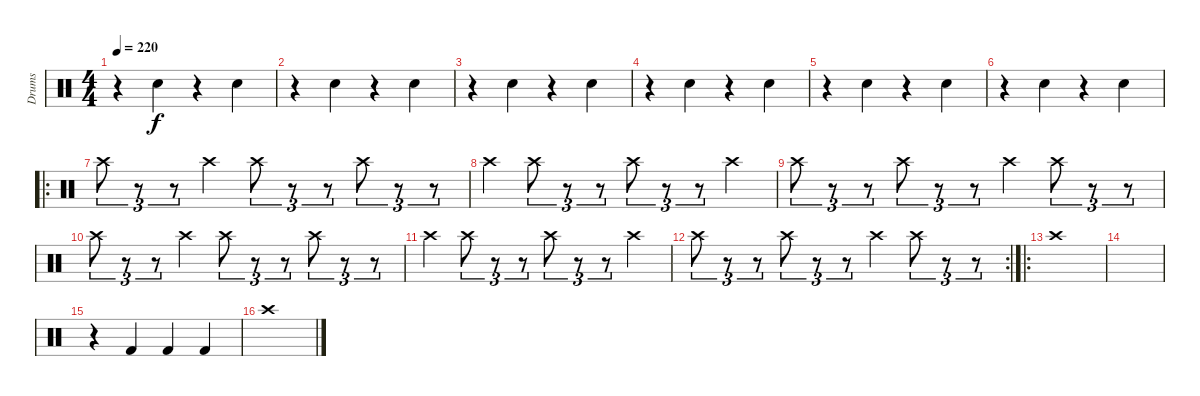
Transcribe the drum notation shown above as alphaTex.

\track ("Drums" "Drums") {instrument percussion}
\staff {score}
\articulation defaults
\ts (4 4)
\tempo 220
\clef neutral
\ks c
r.4{dy f} "Snare (hit) 2".4 r.4 "Snare (hit) 2".4 |
r.4 "Snare (hit) 2".4 r.4 "Snare (hit) 2".4 |
r.4 "Snare (hit) 2".4 r.4 "Snare (hit) 2".4 |
r.4 "Snare (hit) 2".4 r.4 "Snare (hit) 2".4 |
r.4 "Snare (hit) 2".4 r.4 "Snare (hit) 2".4 |
r.4 "Snare (hit) 2".4 r.4 "Snare (hit) 2".4 |
\ro "Crash high (hit)".8{tu (3 2)}
r.8{tu (3 2)} r.8{tu (3 2)} "Crash high (hit)".4 "Crash high (hit)".8{tu (3 2)} r.8{tu (3 2)} r.8{tu (3 2)} "Crash high (hit)".8{tu (3 2)} r.8{tu (3 2)} r.8{tu (3 2)} |
"Crash high (hit)".4 "Crash high (hit)".8{tu (3 2)} r.8{tu (3 2)} r.8{tu (3 2)} "Crash high (hit)".8{tu (3 2)} r.8{tu (3 2)} r.8{tu (3 2)} "Crash high (hit)".4 |
"Crash high (hit)".8{tu (3 2)} r.8{tu (3 2)} r.8{tu (3 2)} "Crash high (hit)".8{tu (3 2)} r.8{tu (3 2)} r.8{tu (3 2)} "Crash high (hit)".4 "Crash high (hit)".8{tu (3 2)} r.8{tu (3 2)} r.8{tu (3 2)} |
"Crash high (hit)".8{tu (3 2)} r.8{tu (3 2)} r.8{tu (3 2)} "Crash high (hit)".4 "Crash high (hit)".8{tu (3 2)} r.8{tu (3 2)} r.8{tu (3 2)} "Crash high (hit)".8{tu (3 2)} r.8{tu (3 2)} r.8{tu (3 2)} |
"Crash high (hit)".4 "Crash high (hit)".8{tu (3 2)} r.8{tu (3 2)} r.8{tu (3 2)} "Crash high (hit)".8{tu (3 2)} r.8{tu (3 2)} r.8{tu (3 2)} "Crash high (hit)".4 |
\rc 2 "Crash high (hit)".8{tu (3 2)}
r.8{tu (3 2)} r.8{tu (3 2)} "Crash high (hit)".8{tu (3 2)} r.8{tu (3 2)} r.8{tu (3 2)} "Crash high (hit)".4 "Crash high (hit)".8{tu (3 2)} r.8{tu (3 2)} r.8{tu (3 2)} |
\ro "Crash high (hit)".1
|
|
r.4 "Kick (hit) 2".4 "Kick (hit) 2".4 "Kick (hit) 2".4 |
"Crash high (hit)".1
